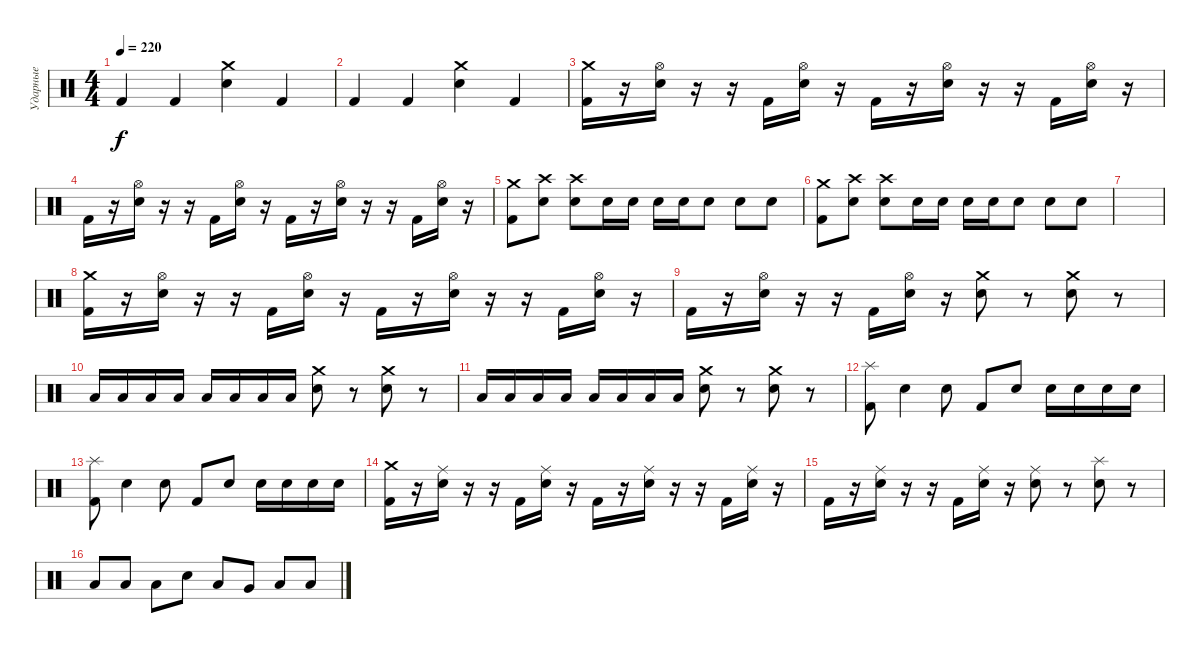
\track ("Ударные" "Ударные") {instrument percussion}
\staff {score}
\articulation defaults
\ts (4 4)
\tempo 220
\clef neutral
\ks c "Kick (hit) 2".4{dy f} "Kick (hit) 2".4
("Crash medium (hit)" "Snare (hit) 2").4 "Kick (hit) 2".4 |
"Kick (hit) 2".4 "Kick (hit) 2".4 ("Crash medium (hit)" "Snare (hit) 2").4 "Kick (hit) 2".4 |
("Crash medium (hit)" "Kick (hit) 2").16 r.16 ("Hi-Hat (open)" "Snare (hit) 2").16 r.16 r.16 "Kick (hit) 2".16 ("Hi-Hat (open)" "Snare (hit) 2").16 r.16 "Kick (hit) 2".16 r.16 ("Hi-Hat (open)" "Snare (hit) 2").16 r.16 r.16 "Kick (hit) 2".16 ("Hi-Hat (open)" "Snare (hit) 2").16 r.16 |
"Kick (hit) 2".16 r.16 ("Hi-Hat (open)" "Snare (hit) 2").16 r.16 r.16 "Kick (hit) 2".16 ("Hi-Hat (open)" "Snare (hit) 2").16 r.16 "Kick (hit) 2".16 r.16 ("Hi-Hat (open)" "Snare (hit) 2").16 r.16 r.16 "Kick (hit) 2".16 ("Hi-Hat (open)" "Snare (hit) 2").16 r.16 |
("Crash medium (hit)" "Kick (hit) 2").8 ("Crash high (hit)" "Snare (hit) 2").8 ("Crash high (hit)" "Snare (hit) 2").8 "Snare (hit) 2".16 "Snare (hit) 2".16 "Snare (hit) 2".16 "Snare (hit) 2".16 "Snare (hit) 2".8 "Snare (hit) 2".8 "Snare (hit) 2".8 |
("Crash medium (hit)" "Kick (hit) 2").8 ("Crash high (hit)" "Snare (hit) 2").8 ("Crash high (hit)" "Snare (hit) 2").8 "Snare (hit) 2".16 "Snare (hit) 2".16 "Snare (hit) 2".16 "Snare (hit) 2".16 "Snare (hit) 2".8 "Snare (hit) 2".8 "Snare (hit) 2".8 |
|
("Crash medium (hit)" "Kick (hit) 2").16 r.16 ("Hi-Hat (open)" "Snare (hit) 2").16 r.16 r.16 "Kick (hit) 2".16 ("Hi-Hat (open)" "Snare (hit) 2").16 r.16 "Kick (hit) 2".16 r.16 ("Hi-Hat (open)" "Snare (hit) 2").16 r.16 r.16 "Kick (hit) 2".16 ("Hi-Hat (open)" "Snare (hit) 2").16 r.16 |
"Kick (hit) 2".16 r.16 ("Hi-Hat (open)" "Snare (hit) 2").16 r.16 r.16 "Kick (hit) 2".16 ("Hi-Hat (open)" "Snare (hit) 2").16 r.16 ("Crash medium (hit)" "Snare (hit) 2").8 r.8 ("Crash medium (hit)" "Snare (hit) 2").8 r.8 |
"Low Floor Tom (hit)".16 "Low Floor Tom (hit)".16 "Low Floor Tom (hit)".16 "Low Floor Tom (hit)".16 "Low Floor Tom (hit)".16 "Low Floor Tom (hit)".16 "Low Floor Tom (hit)".16 "Low Floor Tom (hit)".16 ("Crash medium (hit)" "Snare (hit) 2").8 r.8 ("Crash medium (hit)" "Snare (hit) 2").8 r.8 |
"Low Floor Tom (hit)".16 "Low Floor Tom (hit)".16 "Low Floor Tom (hit)".16 "Low Floor Tom (hit)".16 "Low Floor Tom (hit)".16 "Low Floor Tom (hit)".16 "Low Floor Tom (hit)".16 "Low Floor Tom (hit)".16 ("Crash medium (hit)" "Snare (hit) 2").8 r.8 ("Crash medium (hit)" "Snare (hit) 2").8 r.8 |
("Splash (hit)" "Kick (hit) 2").8 "Snare (hit) 2".4 "Snare (hit) 2".8 "Kick (hit) 2".8 "Snare (hit) 2".8 "Snare (hit) 2".16 "Snare (hit) 2".16 "Snare (hit) 2".16 "Snare (hit) 2".16 |
("Splash (hit)" "Kick (hit) 2").8 "Snare (hit) 2".4 "Snare (hit) 2".8 "Kick (hit) 2".8 "Snare (hit) 2".8 "Snare (hit) 2".16 "Snare (hit) 2".16 "Snare (hit) 2".16 "Snare (hit) 2".16 |
("Crash medium (hit)" "Kick (hit) 2").16 r.16 ("Ride (middle)" "Snare (hit) 2").16 r.16 r.16 "Kick (hit) 2".16 ("Ride (middle)" "Snare (hit) 2").16 r.16 "Kick (hit) 2".16 r.16 ("Ride (middle)" "Snare (hit) 2").16 r.16 r.16 "Kick (hit) 2".16 ("Ride (middle)" "Snare (hit) 2").16 r.16 |
"Kick (hit) 2".16 r.16 ("Ride (middle)" "Snare (hit) 2").16 r.16 r.16 "Kick (hit) 2".16 ("Ride (middle)" "Snare (hit) 2").16 r.16 ("Ride (middle)" "Snare (hit) 2").8 r.8 ("Splash (hit)" "Snare (hit) 2").8 r.8 |
"Low Floor Tom (hit)".8 "Low Floor Tom (hit)".8 "Low Floor Tom (hit)".8 "Snare (hit) 2".8 "Low Floor Tom (hit)".8 "Very Low Tom (hit)".8 "Low Floor Tom (hit)".8 "Low Floor Tom (hit)".8
